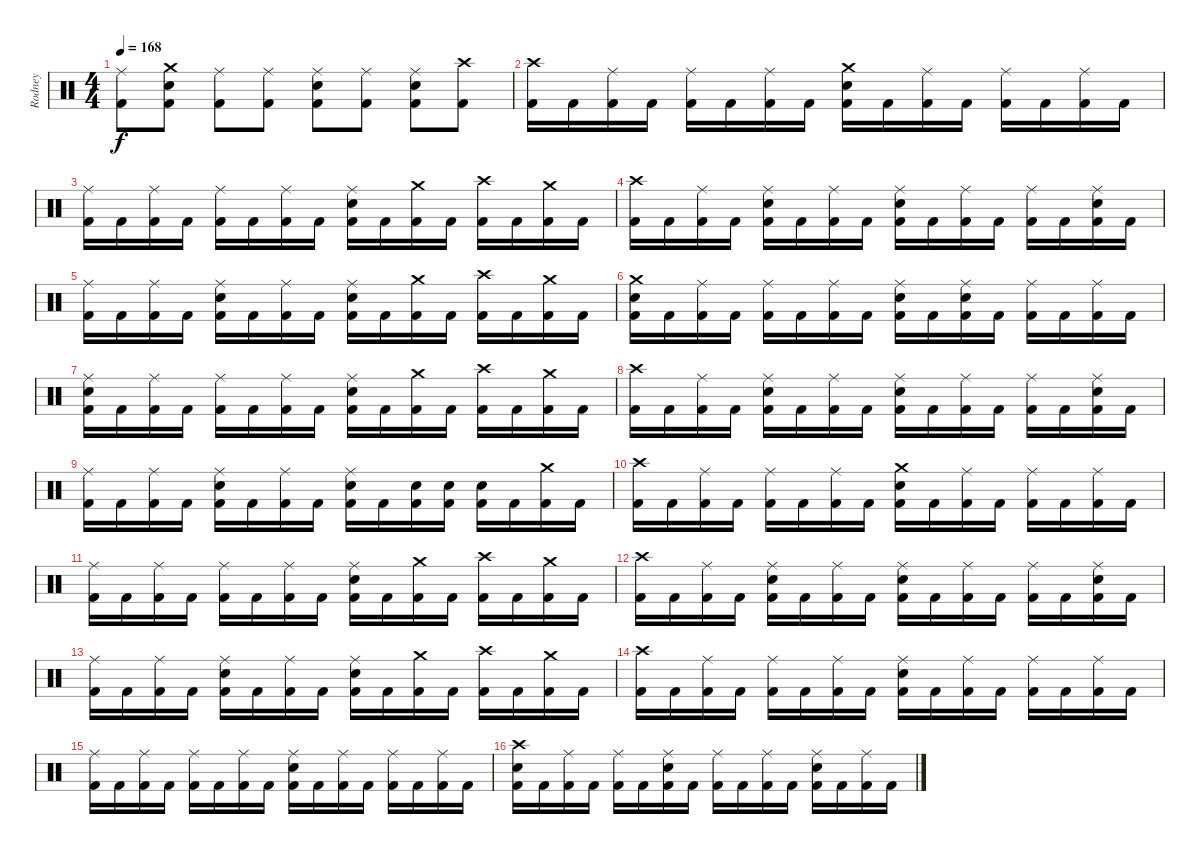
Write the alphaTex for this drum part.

\track ("Rodney" "Rodney") {instrument percussion}
\staff {score}
\articulation defaults
\ts (4 4)
\tempo 168
\clef neutral
\ks c
("Ride (middle)" "Kick (hit) 2").8{dy f} ("Crash medium (hit)" "Snare (hit) 2" "Kick (hit) 2").8 ("Ride (middle)" "Kick (hit) 2").8 ("Ride (middle)" "Kick (hit) 2").8 ("Ride (middle)" "Snare (hit) 2" "Kick (hit) 2").8 ("Ride (middle)" "Kick (hit) 2").8 ("Ride (middle)" "Snare (hit) 2" "Kick (hit) 2").8 ("Crash high (hit)" "Kick (hit) 2").8 |
("Crash high (hit)" "Kick (hit) 2").16 "Kick (hit) 2".16 ("Ride (middle)" "Kick (hit) 2").16 "Kick (hit) 2".16 ("Ride (middle)" "Kick (hit) 2").16 "Kick (hit) 2".16 ("Ride (middle)" "Kick (hit) 2").16 "Kick (hit) 2".16 ("Crash medium (hit)" "Snare (hit) 2" "Kick (hit) 2").16 "Kick (hit) 2".16 ("Ride (middle)" "Kick (hit) 2").16 "Kick (hit) 2".16 ("Ride (middle)" "Kick (hit) 2").16 "Kick (hit) 2".16 ("Ride (middle)" "Kick (hit) 2").16 "Kick (hit) 2".16 |
("Ride (middle)" "Kick (hit) 2").16 "Kick (hit) 2".16 ("Ride (middle)" "Kick (hit) 2").16 "Kick (hit) 2".16 ("Ride (middle)" "Kick (hit) 2").16 "Kick (hit) 2".16 ("Ride (middle)" "Kick (hit) 2").16 "Kick (hit) 2".16 ("Ride (middle)" "Snare (hit) 2" "Kick (hit) 2").16 "Kick (hit) 2".16 ("Crash medium (hit)" "Kick (hit) 2").16 "Kick (hit) 2".16 ("Crash high (hit)" "Kick (hit) 2").16 "Kick (hit) 2".16 ("Crash medium (hit)" "Kick (hit) 2").16 "Kick (hit) 2".16 |
("Crash high (hit)" "Kick (hit) 2").16 "Kick (hit) 2".16 ("Ride (middle)" "Kick (hit) 2").16 "Kick (hit) 2".16 ("Ride (middle)" "Snare (hit) 2" "Kick (hit) 2").16 "Kick (hit) 2".16 ("Ride (middle)" "Kick (hit) 2").16 "Kick (hit) 2".16 ("Ride (middle)" "Snare (hit) 2" "Kick (hit) 2").16 "Kick (hit) 2".16 ("Ride (middle)" "Kick (hit) 2").16 "Kick (hit) 2".16 ("Ride (middle)" "Kick (hit) 2").16 "Kick (hit) 2".16 ("Ride (middle)" "Snare (hit) 2" "Kick (hit) 2").16 "Kick (hit) 2".16 |
("Ride (middle)" "Kick (hit) 2").16 "Kick (hit) 2".16 ("Ride (middle)" "Kick (hit) 2").16 "Kick (hit) 2".16 ("Ride (middle)" "Snare (hit) 2" "Kick (hit) 2").16 "Kick (hit) 2".16 ("Ride (middle)" "Kick (hit) 2").16 "Kick (hit) 2".16 ("Ride (middle)" "Snare (hit) 2" "Kick (hit) 2").16 "Kick (hit) 2".16 ("Crash medium (hit)" "Kick (hit) 2").16 "Kick (hit) 2".16 ("Crash high (hit)" "Kick (hit) 2").16 "Kick (hit) 2".16 ("Crash medium (hit)" "Kick (hit) 2").16 "Kick (hit) 2".16 |
("Crash medium (hit)" "Snare (hit) 2" "Kick (hit) 2").16{volume 14} "Kick (hit) 2".16 ("Ride (middle)" "Kick (hit) 2").16 "Kick (hit) 2".16 ("Ride (middle)" "Kick (hit) 2").16 "Kick (hit) 2".16 ("Ride (middle)" "Kick (hit) 2").16 "Kick (hit) 2".16 ("Ride (middle)" "Snare (hit) 2" "Kick (hit) 2").16 "Kick (hit) 2".16 ("Ride (middle)" "Snare (hit) 2" "Kick (hit) 2").16 "Kick (hit) 2".16 ("Ride (middle)" "Kick (hit) 2").16 "Kick (hit) 2".16 ("Ride (middle)" "Kick (hit) 2").16 "Kick (hit) 2".16 |
("Ride (middle)" "Snare (hit) 2" "Kick (hit) 2").16 "Kick (hit) 2".16 ("Ride (middle)" "Kick (hit) 2").16 "Kick (hit) 2".16 ("Ride (middle)" "Kick (hit) 2").16 "Kick (hit) 2".16 ("Ride (middle)" "Kick (hit) 2").16 "Kick (hit) 2".16 ("Ride (middle)" "Snare (hit) 2" "Kick (hit) 2").16 "Kick (hit) 2".16 ("Crash medium (hit)" "Kick (hit) 2").16 "Kick (hit) 2".16 ("Crash high (hit)" "Kick (hit) 2").16 "Kick (hit) 2".16 ("Crash medium (hit)" "Kick (hit) 2").16 "Kick (hit) 2".16 |
("Crash high (hit)" "Kick (hit) 2").16{volume 12} "Kick (hit) 2".16 ("Ride (middle)" "Kick (hit) 2").16 "Kick (hit) 2".16 ("Ride (middle)" "Snare (hit) 2" "Kick (hit) 2").16 "Kick (hit) 2".16 ("Ride (middle)" "Kick (hit) 2").16 "Kick (hit) 2".16 ("Ride (middle)" "Snare (hit) 2" "Kick (hit) 2").16 "Kick (hit) 2".16 ("Ride (middle)" "Kick (hit) 2").16 "Kick (hit) 2".16 ("Ride (middle)" "Kick (hit) 2").16 "Kick (hit) 2".16 ("Ride (middle)" "Snare (hit) 2" "Kick (hit) 2").16 "Kick (hit) 2".16 |
("Ride (middle)" "Kick (hit) 2").16 "Kick (hit) 2".16 ("Ride (middle)" "Kick (hit) 2").16 "Kick (hit) 2".16 ("Ride (middle)" "Snare (hit) 2" "Kick (hit) 2").16 "Kick (hit) 2".16 ("Ride (middle)" "Kick (hit) 2").16 "Kick (hit) 2".16 ("Ride (middle)" "Snare (hit) 2" "Kick (hit) 2").16 "Kick (hit) 2".16 ("Snare (hit) 2" "Kick (hit) 2").16 ("Snare (hit) 2" "Kick (hit) 2").16 ("Snare (hit) 2" "Kick (hit) 2").16 "Kick (hit) 2".16 ("Crash medium (hit)" "Kick (hit) 2").16 "Kick (hit) 2".16 |
("Crash high (hit)" "Kick (hit) 2").16{volume 10} "Kick (hit) 2".16 ("Ride (middle)" "Kick (hit) 2").16 "Kick (hit) 2".16 ("Ride (middle)" "Kick (hit) 2").16 "Kick (hit) 2".16 ("Ride (middle)" "Kick (hit) 2").16 "Kick (hit) 2".16 ("Crash medium (hit)" "Snare (hit) 2" "Kick (hit) 2").16 "Kick (hit) 2".16 ("Ride (middle)" "Kick (hit) 2").16 "Kick (hit) 2".16 ("Ride (middle)" "Kick (hit) 2").16 "Kick (hit) 2".16 ("Ride (middle)" "Kick (hit) 2").16 "Kick (hit) 2".16 |
("Ride (middle)" "Kick (hit) 2").16 "Kick (hit) 2".16 ("Ride (middle)" "Kick (hit) 2").16 "Kick (hit) 2".16 ("Ride (middle)" "Kick (hit) 2").16 "Kick (hit) 2".16 ("Ride (middle)" "Kick (hit) 2").16 "Kick (hit) 2".16 ("Ride (middle)" "Snare (hit) 2" "Kick (hit) 2").16 "Kick (hit) 2".16 ("Crash medium (hit)" "Kick (hit) 2").16 "Kick (hit) 2".16 ("Crash high (hit)" "Kick (hit) 2").16 "Kick (hit) 2".16 ("Crash medium (hit)" "Kick (hit) 2").16 "Kick (hit) 2".16 |
("Crash high (hit)" "Kick (hit) 2").16{volume 8} "Kick (hit) 2".16 ("Ride (middle)" "Kick (hit) 2").16 "Kick (hit) 2".16 ("Ride (middle)" "Snare (hit) 2" "Kick (hit) 2").16 "Kick (hit) 2".16 ("Ride (middle)" "Kick (hit) 2").16 "Kick (hit) 2".16 ("Ride (middle)" "Snare (hit) 2" "Kick (hit) 2").16 "Kick (hit) 2".16 ("Ride (middle)" "Kick (hit) 2").16 "Kick (hit) 2".16 ("Ride (middle)" "Kick (hit) 2").16 "Kick (hit) 2".16 ("Ride (middle)" "Snare (hit) 2" "Kick (hit) 2").16 "Kick (hit) 2".16 |
("Ride (middle)" "Kick (hit) 2").16 "Kick (hit) 2".16 ("Ride (middle)" "Kick (hit) 2").16 "Kick (hit) 2".16 ("Ride (middle)" "Snare (hit) 2" "Kick (hit) 2").16 "Kick (hit) 2".16 ("Ride (middle)" "Kick (hit) 2").16 "Kick (hit) 2".16 ("Ride (middle)" "Snare (hit) 2" "Kick (hit) 2").16 "Kick (hit) 2".16 ("Crash medium (hit)" "Kick (hit) 2").16 "Kick (hit) 2".16 ("Crash high (hit)" "Kick (hit) 2").16 "Kick (hit) 2".16 ("Crash medium (hit)" "Kick (hit) 2").16 "Kick (hit) 2".16 |
("Crash high (hit)" "Kick (hit) 2").16{volume 6} "Kick (hit) 2".16 ("Ride (middle)" "Kick (hit) 2").16 "Kick (hit) 2".16 ("Ride (middle)" "Kick (hit) 2").16 "Kick (hit) 2".16 ("Ride (middle)" "Kick (hit) 2").16 "Kick (hit) 2".16 ("Ride (middle)" "Snare (hit) 2" "Kick (hit) 2").16 "Kick (hit) 2".16 ("Ride (middle)" "Kick (hit) 2").16 "Kick (hit) 2".16 ("Ride (middle)" "Kick (hit) 2").16 "Kick (hit) 2".16 ("Ride (middle)" "Kick (hit) 2").16 "Kick (hit) 2".16 |
("Ride (middle)" "Kick (hit) 2").16 "Kick (hit) 2".16 ("Ride (middle)" "Kick (hit) 2").16 "Kick (hit) 2".16 ("Ride (middle)" "Kick (hit) 2").16 "Kick (hit) 2".16 ("Ride (middle)" "Kick (hit) 2").16 "Kick (hit) 2".16 ("Ride (middle)" "Snare (hit) 2" "Kick (hit) 2").16 "Kick (hit) 2".16 ("Ride (middle)" "Kick (hit) 2").16 "Kick (hit) 2".16 ("Ride (middle)" "Kick (hit) 2").16 "Kick (hit) 2".16 ("Ride (middle)" "Kick (hit) 2").16 "Kick (hit) 2".16 |
("Crash high (hit)" "Snare (hit) 2" "Kick (hit) 2").16{volume 3} "Kick (hit) 2".16 ("Ride (middle)" "Kick (hit) 2").16 "Kick (hit) 2".16 ("Ride (middle)" "Kick (hit) 2").16 "Kick (hit) 2".16 ("Ride (middle)" "Snare (hit) 2" "Kick (hit) 2").16 "Kick (hit) 2".16 ("Ride (middle)" "Kick (hit) 2").16 "Kick (hit) 2".16 ("Ride (middle)" "Kick (hit) 2").16 "Kick (hit) 2".16 ("Ride (middle)" "Snare (hit) 2" "Kick (hit) 2").16 "Kick (hit) 2".16 ("Ride (middle)" "Kick (hit) 2").16 "Kick (hit) 2".16
